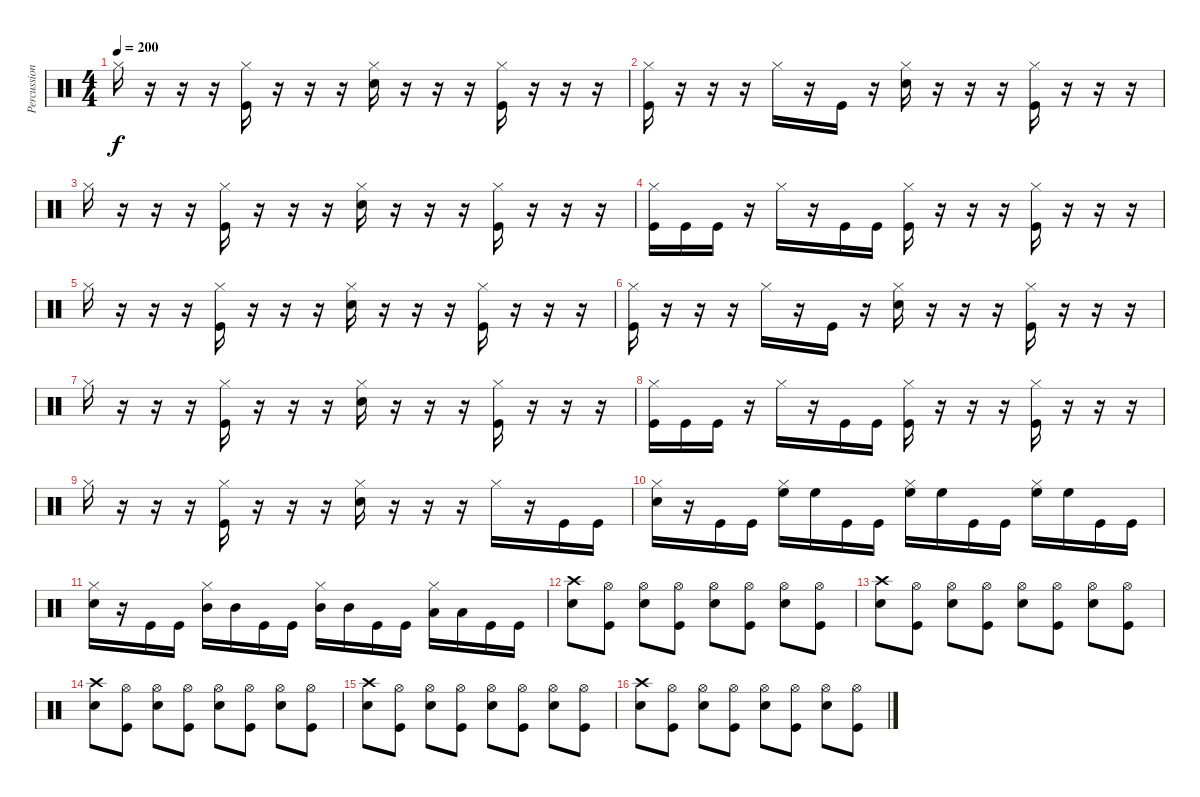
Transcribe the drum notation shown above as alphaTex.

\track ("Percussion" "Percussion") {instrument percussion}
\staff {score}
\articulation defaults
\ts (4 4)
\tempo 200
\clef neutral
\ks c "Hi-Hat (closed)".16{dy f}
r.16 r.16 r.16 ("Hi-Hat (closed)" "Kick (hit)").16 r.16 r.16 r.16 ("Hi-Hat (closed)" "Electric Snare (hit)").16 r.16 r.16 r.16 ("Hi-Hat (closed)" "Kick (hit)").16 r.16 r.16 r.16 |
("Hi-Hat (closed)" "Kick (hit)").16 r.16 r.16 r.16 "Hi-Hat (closed)".16 r.16 "Kick (hit)".16 r.16 ("Hi-Hat (closed)" "Electric Snare (hit)").16 r.16 r.16 r.16 ("Hi-Hat (closed)" "Kick (hit)").16 r.16 r.16 r.16 |
"Hi-Hat (closed)".16 r.16 r.16 r.16 ("Hi-Hat (closed)" "Kick (hit)").16 r.16 r.16 r.16 ("Hi-Hat (closed)" "Electric Snare (hit)").16 r.16 r.16 r.16 ("Hi-Hat (closed)" "Kick (hit)").16 r.16 r.16 r.16 |
("Hi-Hat (closed)" "Kick (hit)").16 "Kick (hit)".16 "Kick (hit)".16 r.16 "Hi-Hat (closed)".16 r.16 "Kick (hit)".16 "Kick (hit)".16 ("Hi-Hat (closed)" "Kick (hit)").16 r.16 r.16 r.16 ("Hi-Hat (closed)" "Kick (hit)").16 r.16 r.16 r.16 |
"Hi-Hat (closed)".16 r.16 r.16 r.16 ("Hi-Hat (closed)" "Kick (hit)").16 r.16 r.16 r.16 ("Hi-Hat (closed)" "Electric Snare (hit)").16 r.16 r.16 r.16 ("Hi-Hat (closed)" "Kick (hit)").16 r.16 r.16 r.16 |
("Hi-Hat (closed)" "Kick (hit)").16 r.16 r.16 r.16 "Hi-Hat (closed)".16 r.16 "Kick (hit)".16 r.16 ("Hi-Hat (closed)" "Electric Snare (hit)").16 r.16 r.16 r.16 ("Hi-Hat (closed)" "Kick (hit)").16 r.16 r.16 r.16 |
"Hi-Hat (closed)".16 r.16 r.16 r.16 ("Hi-Hat (closed)" "Kick (hit)").16 r.16 r.16 r.16 ("Hi-Hat (closed)" "Electric Snare (hit)").16 r.16 r.16 r.16 ("Hi-Hat (closed)" "Kick (hit)").16 r.16 r.16 r.16 |
("Hi-Hat (closed)" "Kick (hit)").16 "Kick (hit)".16 "Kick (hit)".16 r.16 "Hi-Hat (closed)".16 r.16 "Kick (hit)".16 "Kick (hit)".16 ("Hi-Hat (closed)" "Kick (hit)").16 r.16 r.16 r.16 ("Hi-Hat (closed)" "Kick (hit)").16 r.16 r.16 r.16 |
"Hi-Hat (closed)".16 r.16 r.16 r.16 ("Hi-Hat (closed)" "Kick (hit)").16 r.16 r.16 r.16 ("Hi-Hat (closed)" "Electric Snare (hit)").16 r.16 r.16 r.16 "Hi-Hat (closed)".16 r.16 "Kick (hit)".16 "Kick (hit)".16 |
("Hi-Hat (closed)" "Electric Snare (hit)").16 r.16 "Kick (hit)".16 "Kick (hit)".16 ("Hi-Hat (closed)" "High Floor Tom (hit)").16 "High Floor Tom (hit)".16 "Kick (hit)".16 "Kick (hit)".16 ("Hi-Hat (closed)" "High Floor Tom (hit)").16 "High Floor Tom (hit)".16 "Kick (hit)".16 "Kick (hit)".16 ("Hi-Hat (closed)" "High Floor Tom (hit)").16 "High Floor Tom (hit)".16 "Kick (hit)".16 "Kick (hit)".16 |
("Hi-Hat (closed)" "Electric Snare (hit)").16 r.16 "Kick (hit)".16 "Kick (hit)".16 ("Hi-Hat (closed)" "Mid Tom (hit)").16 "Mid Tom (hit)".16 "Kick (hit)".16 "Kick (hit)".16 ("Hi-Hat (closed)" "Mid Tom (hit)").16 "Mid Tom (hit)".16 "Kick (hit)".16 "Kick (hit)".16 ("Hi-Hat (closed)" "Low Floor Tom (hit)").16 "Low Floor Tom (hit)".16 "Kick (hit)".16 "Kick (hit)".16 |
("Crash high (hit)" "Electric Snare (hit)").8 ("Hi-Hat (open)" "Kick (hit)").8 ("Hi-Hat (open)" "Electric Snare (hit)").8 ("Hi-Hat (open)" "Kick (hit)").8 ("Hi-Hat (open)" "Electric Snare (hit)").8 ("Hi-Hat (open)" "Kick (hit)").8 ("Hi-Hat (open)" "Electric Snare (hit)").8 ("Hi-Hat (open)" "Kick (hit)").8 |
("Crash high (hit)" "Electric Snare (hit)").8 ("Hi-Hat (open)" "Kick (hit)").8 ("Hi-Hat (open)" "Electric Snare (hit)").8 ("Hi-Hat (open)" "Kick (hit)").8 ("Hi-Hat (open)" "Electric Snare (hit)").8 ("Hi-Hat (open)" "Kick (hit)").8 ("Hi-Hat (open)" "Electric Snare (hit)").8 ("Hi-Hat (open)" "Kick (hit)").8 |
("Crash high (hit)" "Electric Snare (hit)").8 ("Hi-Hat (open)" "Kick (hit)").8 ("Hi-Hat (open)" "Electric Snare (hit)").8 ("Hi-Hat (open)" "Kick (hit)").8 ("Hi-Hat (open)" "Electric Snare (hit)").8 ("Hi-Hat (open)" "Kick (hit)").8 ("Hi-Hat (open)" "Electric Snare (hit)").8 ("Hi-Hat (open)" "Kick (hit)").8 |
("Crash high (hit)" "Electric Snare (hit)").8 ("Hi-Hat (open)" "Kick (hit)").8 ("Hi-Hat (open)" "Electric Snare (hit)").8 ("Hi-Hat (open)" "Kick (hit)").8 ("Hi-Hat (open)" "Electric Snare (hit)").8 ("Hi-Hat (open)" "Kick (hit)").8 ("Hi-Hat (open)" "Electric Snare (hit)").8 ("Hi-Hat (open)" "Kick (hit)").8 |
("Crash high (hit)" "Electric Snare (hit)").8 ("Hi-Hat (open)" "Kick (hit)").8 ("Hi-Hat (open)" "Electric Snare (hit)").8 ("Hi-Hat (open)" "Kick (hit)").8 ("Hi-Hat (open)" "Electric Snare (hit)").8 ("Hi-Hat (open)" "Kick (hit)").8 ("Hi-Hat (open)" "Electric Snare (hit)").8 ("Hi-Hat (open)" "Kick (hit)").8
